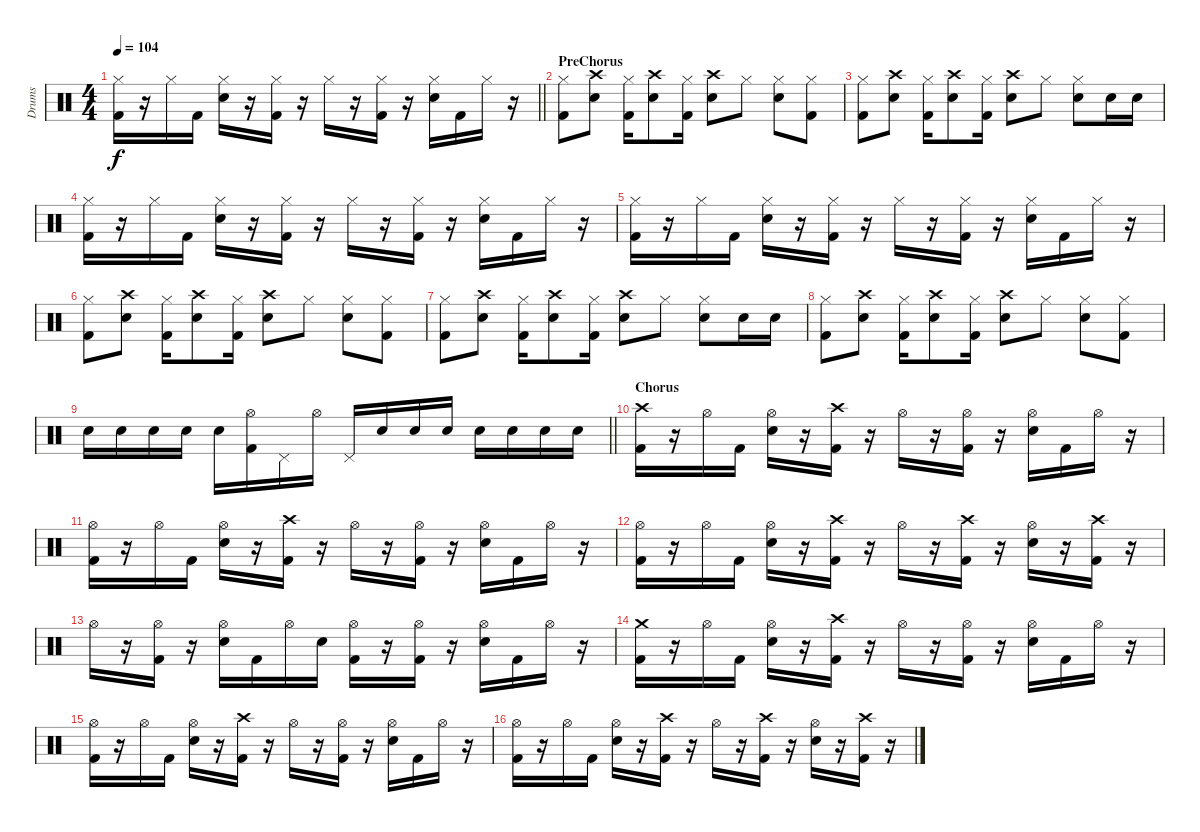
\track ("Drums" "Drums") {instrument percussion}
\staff {score}
\articulation defaults
\ts (4 4)
\tempo 104
\clef neutral
\barLineRight lightlight
\ks c
("Hi-Hat (closed)" "Kick (hit) 2").16{dy f} r.16 "Hi-Hat (closed)".16 "Kick (hit) 2".16 ("Hi-Hat (closed)" "Snare (hit) 2").16 r.16 ("Hi-Hat (closed)" "Kick (hit) 2").16 r.16 "Hi-Hat (closed)".16 r.16 ("Hi-Hat (closed)" "Kick (hit) 2").16 r.16 ("Hi-Hat (closed)" "Snare (hit) 2").16 "Kick (hit) 2".16 "Hi-Hat (closed)".16 r.16 |
\section ("" "PreChorus")
("Hi-Hat (closed)" "Kick (hit) 2").8 ("Crash high (hit)" "Snare (hit) 2").8 ("Hi-Hat (closed)" "Kick (hit) 2").16 ("Crash high (hit)" "Snare (hit) 2").8 ("Hi-Hat (closed)" "Kick (hit) 2").16 ("Crash high (hit)" "Snare (hit) 2").8 "Hi-Hat (closed)".8 ("Hi-Hat (closed)" "Snare (hit) 2").8 ("Hi-Hat (closed)" "Kick (hit) 2").8 |
("Hi-Hat (closed)" "Kick (hit) 2").8 ("Crash high (hit)" "Snare (hit) 2").8 ("Hi-Hat (closed)" "Kick (hit) 2").16 ("Crash high (hit)" "Snare (hit) 2").8 ("Hi-Hat (closed)" "Kick (hit) 2").16 ("Crash high (hit)" "Snare (hit) 2").8 "Hi-Hat (closed)".8 ("Hi-Hat (closed)" "Snare (hit) 2").8 "Snare (hit) 2".16 "Snare (hit) 2".16 |
("Hi-Hat (closed)" "Kick (hit) 2").16 r.16 "Hi-Hat (closed)".16 "Kick (hit) 2".16 ("Hi-Hat (closed)" "Snare (hit) 2").16 r.16 ("Hi-Hat (closed)" "Kick (hit) 2").16 r.16 "Hi-Hat (closed)".16 r.16 ("Hi-Hat (closed)" "Kick (hit) 2").16 r.16 ("Hi-Hat (closed)" "Snare (hit) 2").16 "Kick (hit) 2".16 "Hi-Hat (closed)".16 r.16 |
("Hi-Hat (closed)" "Kick (hit) 2").16 r.16 "Hi-Hat (closed)".16 "Kick (hit) 2".16 ("Hi-Hat (closed)" "Snare (hit) 2").16 r.16 ("Hi-Hat (closed)" "Kick (hit) 2").16 r.16 "Hi-Hat (closed)".16 r.16 ("Hi-Hat (closed)" "Kick (hit) 2").16 r.16 ("Hi-Hat (closed)" "Snare (hit) 2").16 "Kick (hit) 2".16 "Hi-Hat (closed)".16 r.16 |
("Hi-Hat (closed)" "Kick (hit) 2").8 ("Crash high (hit)" "Snare (hit) 2").8 ("Hi-Hat (closed)" "Kick (hit) 2").16 ("Crash high (hit)" "Snare (hit) 2").8 ("Hi-Hat (closed)" "Kick (hit) 2").16 ("Crash high (hit)" "Snare (hit) 2").8 "Hi-Hat (closed)".8 ("Hi-Hat (closed)" "Snare (hit) 2").8 ("Hi-Hat (closed)" "Kick (hit) 2").8 |
("Hi-Hat (closed)" "Kick (hit) 2").8 ("Crash high (hit)" "Snare (hit) 2").8 ("Hi-Hat (closed)" "Kick (hit) 2").16 ("Crash high (hit)" "Snare (hit) 2").8 ("Hi-Hat (closed)" "Kick (hit) 2").16 ("Crash high (hit)" "Snare (hit) 2").8 "Hi-Hat (closed)".8 ("Hi-Hat (closed)" "Snare (hit) 2").8 "Snare (hit) 2".16 "Snare (hit) 2".16 |
("Hi-Hat (closed)" "Kick (hit) 2").8 ("Crash high (hit)" "Snare (hit) 2").8 ("Hi-Hat (closed)" "Kick (hit) 2").16 ("Crash high (hit)" "Snare (hit) 2").8 ("Hi-Hat (closed)" "Kick (hit) 2").16 ("Crash high (hit)" "Snare (hit) 2").8 "Hi-Hat (closed)".8 ("Hi-Hat (closed)" "Snare (hit) 2").8 ("Hi-Hat (closed)" "Kick (hit) 2").8 |
\barLineRight lightlight "Snare (hit) 2".16 "Snare (hit) 2".16 "Snare (hit) 2".16 "Snare (hit) 2".16 "Snare (hit) 2".16
("Hi-Hat (open)" "Kick (hit) 2").16 "Pedal Hi-Hat (hit)".16 "Hi-Hat (open)".16 "Pedal Hi-Hat (hit)".16 "Snare (hit) 2".16 "Snare (hit) 2".16 "Snare (hit) 2".16 "Snare (hit) 2".16 "Snare (hit) 2".16 "Snare (hit) 2".16 "Snare (hit) 2".16 |
\section ("" "Chorus")
("Crash high (hit)" "Kick (hit) 2").16 r.16 "Hi-Hat (open)".16 "Kick (hit) 2".16 ("Hi-Hat (open)" "Snare (hit) 2").16 r.16 ("Crash high (hit)" "Kick (hit) 2").16 r.16 "Hi-Hat (open)".16 r.16 ("Hi-Hat (open)" "Kick (hit) 2").16 r.16 ("Hi-Hat (open)" "Snare (hit) 2").16 "Kick (hit) 2".16 "Hi-Hat (open)".16 r.16 |
("Hi-Hat (open)" "Kick (hit) 2").16 r.16 "Hi-Hat (open)".16 "Kick (hit) 2".16 ("Hi-Hat (open)" "Snare (hit) 2").16 r.16 ("Crash high (hit)" "Kick (hit) 2").16 r.16 "Hi-Hat (open)".16 r.16 ("Hi-Hat (open)" "Kick (hit) 2").16 r.16 ("Hi-Hat (open)" "Snare (hit) 2").16 "Kick (hit) 2".16 "Hi-Hat (open)".16 r.16 |
("Hi-Hat (open)" "Kick (hit) 2").16 r.16 "Hi-Hat (open)".16 "Kick (hit) 2".16 ("Hi-Hat (open)" "Snare (hit) 2").16 r.16 ("Crash high (hit)" "Kick (hit) 2").16 r.16 "Hi-Hat (open)".16 r.16 ("Crash high (hit)" "Kick (hit) 2").16 r.16 ("Hi-Hat (open)" "Snare (hit) 2").16 r.16 ("Crash high (hit)" "Kick (hit) 2").16 r.16 |
"Hi-Hat (open)".16 r.16 ("Hi-Hat (open)" "Kick (hit) 2").16 r.16 ("Hi-Hat (open)" "Snare (hit) 2").16 "Kick (hit) 2".16 "Hi-Hat (open)".16 "Snare (hit) 2".16 ("Hi-Hat (open)" "Kick (hit) 2").16 r.16 ("Hi-Hat (open)" "Kick (hit) 2").16 r.16 ("Hi-Hat (open)" "Snare (hit) 2").16 "Kick (hit) 2".16 "Hi-Hat (open)".16 r.16 |
("Crash medium (hit)" "Kick (hit) 2").16 r.16 "Hi-Hat (open)".16 "Kick (hit) 2".16 ("Hi-Hat (open)" "Snare (hit) 2").16 r.16 ("Crash high (hit)" "Kick (hit) 2").16 r.16 "Hi-Hat (open)".16 r.16 ("Hi-Hat (open)" "Kick (hit) 2").16 r.16 ("Hi-Hat (open)" "Snare (hit) 2").16 "Kick (hit) 2".16 "Hi-Hat (open)".16 r.16 |
("Hi-Hat (open)" "Kick (hit) 2").16 r.16 "Hi-Hat (open)".16 "Kick (hit) 2".16 ("Hi-Hat (open)" "Snare (hit) 2").16 r.16 ("Crash high (hit)" "Kick (hit) 2").16 r.16 "Hi-Hat (open)".16 r.16 ("Hi-Hat (open)" "Kick (hit) 2").16 r.16 ("Hi-Hat (open)" "Snare (hit) 2").16 "Kick (hit) 2".16 "Hi-Hat (open)".16 r.16 |
("Hi-Hat (open)" "Kick (hit) 2").16 r.16 "Hi-Hat (open)".16 "Kick (hit) 2".16 ("Hi-Hat (open)" "Snare (hit) 2").16 r.16 ("Crash high (hit)" "Kick (hit) 2").16 r.16 "Hi-Hat (open)".16 r.16 ("Crash high (hit)" "Kick (hit) 2").16 r.16 ("Hi-Hat (open)" "Snare (hit) 2").16 r.16 ("Crash high (hit)" "Kick (hit) 2").16 r.16
